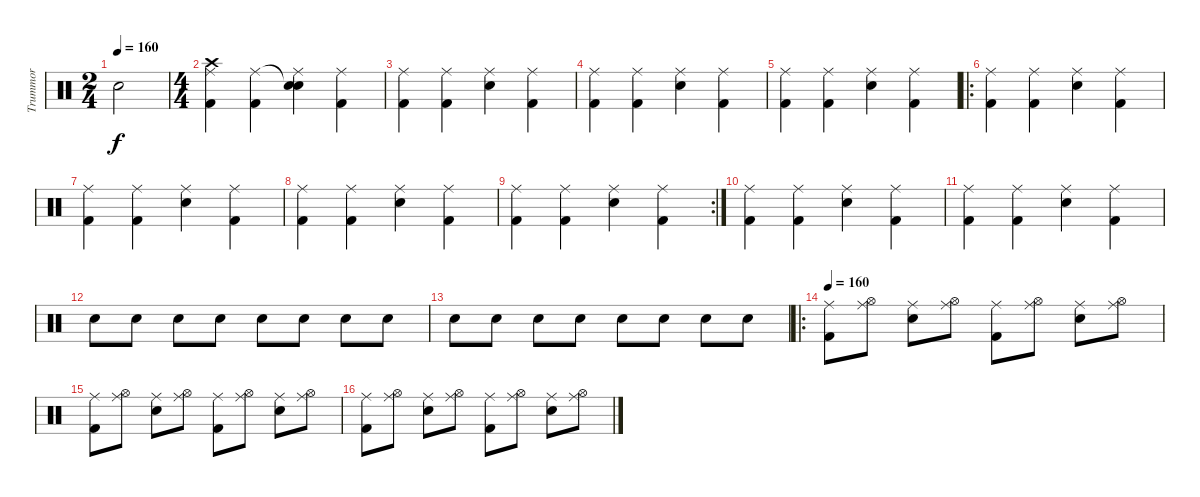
\track ("Trummor" "Trummor") {instrument percussion}
\staff {score}
\articulation defaults
\ts (2 4)
\tempo 160
\clef neutral
\ks c "Snare (hit) 2".2{dy f}
|
\ts (4 4)
("Crash high (hit)" "Ride (middle)" "Kick (hit) 2").4 ("Ride (middle)" "Kick (hit) 2").4 ("Snare (hit)"{t} "Ride (middle)" "Snare (hit) 2").4 ("Ride (middle)" "Kick (hit) 2").4 |
("Ride (middle)" "Kick (hit) 2").4 ("Ride (middle)" "Kick (hit) 2").4 ("Ride (middle)" "Snare (hit) 2").4 ("Ride (middle)" "Kick (hit) 2").4 |
("Ride (middle)" "Kick (hit) 2").4 ("Ride (middle)" "Kick (hit) 2").4 ("Ride (middle)" "Snare (hit) 2").4 ("Ride (middle)" "Kick (hit) 2").4 |
("Ride (middle)" "Kick (hit) 2").4 ("Ride (middle)" "Kick (hit) 2").4 ("Ride (middle)" "Snare (hit) 2").4 ("Ride (middle)" "Kick (hit) 2").4 |
\ro
("Ride (middle)" "Kick (hit) 2").4 ("Ride (middle)" "Kick (hit) 2").4 ("Ride (middle)" "Snare (hit) 2").4 ("Ride (middle)" "Kick (hit) 2").4 |
("Ride (middle)" "Kick (hit) 2").4 ("Ride (middle)" "Kick (hit) 2").4 ("Ride (middle)" "Snare (hit) 2").4 ("Ride (middle)" "Kick (hit) 2").4 |
("Ride (middle)" "Kick (hit) 2").4 ("Ride (middle)" "Kick (hit) 2").4 ("Ride (middle)" "Snare (hit) 2").4 ("Ride (middle)" "Kick (hit) 2").4 |
\rc 2
("Ride (middle)" "Kick (hit) 2").4 ("Ride (middle)" "Kick (hit) 2").4 ("Ride (middle)" "Snare (hit) 2").4 ("Ride (middle)" "Kick (hit) 2").4 |
("Ride (middle)" "Kick (hit) 2").4 ("Ride (middle)" "Kick (hit) 2").4 ("Ride (middle)" "Snare (hit) 2").4 ("Ride (middle)" "Kick (hit) 2").4 |
("Ride (middle)" "Kick (hit) 2").4 ("Ride (middle)" "Kick (hit) 2").4 ("Ride (middle)" "Snare (hit) 2").4 ("Ride (middle)" "Kick (hit) 2").4 |
"Snare (hit) 2".8 "Snare (hit) 2".8 "Snare (hit) 2".8 "Snare (hit) 2".8 "Snare (hit) 2".8 "Snare (hit) 2".8 "Snare (hit) 2".8 "Snare (hit) 2".8 |
"Snare (hit) 2".8 "Snare (hit) 2".8 "Snare (hit) 2".8 "Snare (hit) 2".8 "Snare (hit) 2".8 "Snare (hit) 2".8 "Snare (hit) 2".8 "Snare (hit) 2".8 |
\ro
\tempo 170
\tempo 160
("Kick (hit) 2" "Ride (middle)").8 ("Hi-Hat (open)" "Ride (middle)").8 ("Electric Snare (hit)" "Ride (middle)").8 ("Hi-Hat (open)" "Ride (middle)").8 ("Kick (hit) 2" "Ride (middle)").8 ("Hi-Hat (open)" "Ride (middle)").8 ("Electric Snare (hit)" "Ride (middle)").8 ("Hi-Hat (open)" "Ride (middle)").8 |
("Kick (hit) 2" "Ride (middle)").8 ("Hi-Hat (open)" "Ride (middle)").8 ("Electric Snare (hit)" "Ride (middle)").8 ("Hi-Hat (open)" "Ride (middle)").8 ("Kick (hit) 2" "Ride (middle)").8 ("Hi-Hat (open)" "Ride (middle)").8 ("Electric Snare (hit)" "Ride (middle)").8 ("Hi-Hat (open)" "Ride (middle)").8 |
("Kick (hit) 2" "Ride (middle)").8 ("Hi-Hat (open)" "Ride (middle)").8 ("Electric Snare (hit)" "Ride (middle)").8 ("Hi-Hat (open)" "Ride (middle)").8 ("Kick (hit) 2" "Ride (middle)").8 ("Hi-Hat (open)" "Ride (middle)").8 ("Electric Snare (hit)" "Ride (middle)").8 ("Hi-Hat (open)" "Ride (middle)").8
